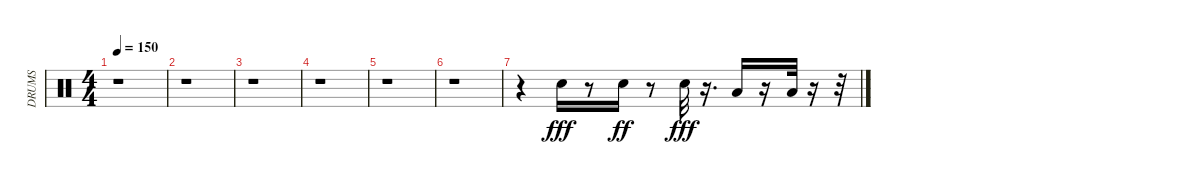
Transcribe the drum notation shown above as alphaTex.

\track ("DRUMS" "DRUMS") {instrument percussion}
\staff {score}
\articulation defaults
\ts (4 4)
\tempo 150
\clef neutral
\ks c
r.1{dy fff} |
r.1 |
r.1 |
r.1 |
r.1 |
r.1 |
r.4 "Electric Snare (hit)".16 r.8 "Electric Snare (hit)".16{dy ff} r.8 "Electric Snare (hit)".32{dy fff} r.16{d} "Low Tom (hit)".16 r.16 "Low Floor Tom (hit)".32 r.16 r.32
